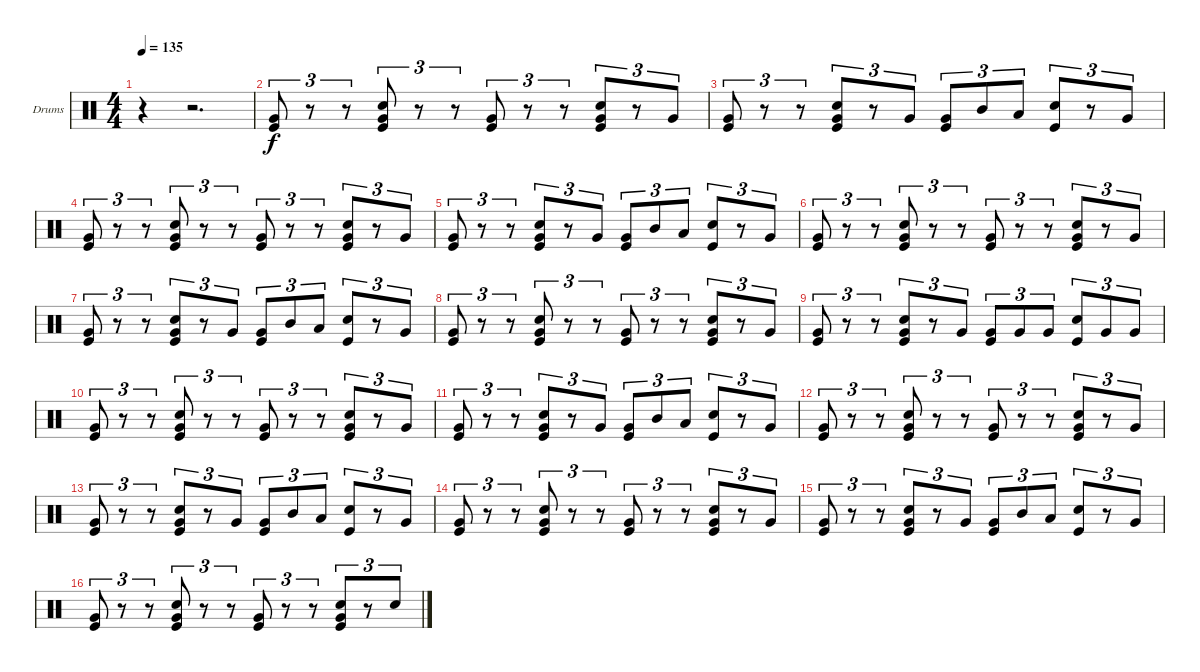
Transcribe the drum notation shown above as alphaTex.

\bracketExtendMode groupsimilarinstruments
\firstSystemTrackNameOrientation horizontal
\otherSystemsTrackNameOrientation horizontal
\track ("Drumkit (Christoph)" "Drums") {instrument percussion}
\staff {score}
\articulation defaults
\ts (4 4)
\tempo 135
\clef neutral
\ks c
r.4{dy f} r.2{d} |
("Very Low Tom (hit)" "Kick (hit)").8{tu (3 2)} r.8{tu (3 2)} r.8{tu (3 2)} ("Snare (hit) 2" "Very Low Tom (hit)" "Kick (hit)").8{tu (3 2)} r.8{tu (3 2)} r.8{tu (3 2)} ("Very Low Tom (hit)" "Kick (hit)").8{tu (3 2)} r.8{tu (3 2)} r.8{tu (3 2)} ("Snare (hit) 2" "Very Low Tom (hit)" "Kick (hit)").8{tu (3 2)} r.8{tu (3 2)} "Very Low Tom (hit)".8{tu (3 2)} |
("Very Low Tom (hit)" "Kick (hit)").8{tu (3 2)} r.8{tu (3 2)} r.8{tu (3 2)} ("Snare (hit) 2" "Very Low Tom (hit)" "Kick (hit)").8{tu (3 2)} r.8{tu (3 2)} "Very Low Tom (hit)".8{tu (3 2)} ("Very Low Tom (hit)" "Kick (hit)").8{tu (3 2)} "Mid Tom (hit)".8{tu (3 2)} "Low Tom (hit)".8{tu (3 2)} ("Snare (hit) 2" "Kick (hit)").8{tu (3 2)} r.8{tu (3 2)} "Very Low Tom (hit)".8{tu (3 2)} |
("Very Low Tom (hit)" "Kick (hit)").8{tu (3 2)} r.8{tu (3 2)} r.8{tu (3 2)} ("Snare (hit) 2" "Very Low Tom (hit)" "Kick (hit)").8{tu (3 2)} r.8{tu (3 2)} r.8{tu (3 2)} ("Very Low Tom (hit)" "Kick (hit)").8{tu (3 2)} r.8{tu (3 2)} r.8{tu (3 2)} ("Snare (hit) 2" "Very Low Tom (hit)" "Kick (hit)").8{tu (3 2)} r.8{tu (3 2)} "Very Low Tom (hit)".8{tu (3 2)} |
("Very Low Tom (hit)" "Kick (hit)").8{tu (3 2)} r.8{tu (3 2)} r.8{tu (3 2)} ("Snare (hit) 2" "Very Low Tom (hit)" "Kick (hit)").8{tu (3 2)} r.8{tu (3 2)} "Very Low Tom (hit)".8{tu (3 2)} ("Very Low Tom (hit)" "Kick (hit)").8{tu (3 2)} "Mid Tom (hit)".8{tu (3 2)} "Low Tom (hit)".8{tu (3 2)} ("Snare (hit) 2" "Kick (hit)").8{tu (3 2)} r.8{tu (3 2)} "Very Low Tom (hit)".8{tu (3 2)} |
("Very Low Tom (hit)" "Kick (hit)").8{tu (3 2)} r.8{tu (3 2)} r.8{tu (3 2)} ("Snare (hit) 2" "Very Low Tom (hit)" "Kick (hit)").8{tu (3 2)} r.8{tu (3 2)} r.8{tu (3 2)} ("Very Low Tom (hit)" "Kick (hit)").8{tu (3 2)} r.8{tu (3 2)} r.8{tu (3 2)} ("Snare (hit) 2" "Very Low Tom (hit)" "Kick (hit)").8{tu (3 2)} r.8{tu (3 2)} "Very Low Tom (hit)".8{tu (3 2)} |
("Very Low Tom (hit)" "Kick (hit)").8{tu (3 2)} r.8{tu (3 2)} r.8{tu (3 2)} ("Snare (hit) 2" "Very Low Tom (hit)" "Kick (hit)").8{tu (3 2)} r.8{tu (3 2)} "Very Low Tom (hit)".8{tu (3 2)} ("Very Low Tom (hit)" "Kick (hit)").8{tu (3 2)} "Mid Tom (hit)".8{tu (3 2)} "Low Tom (hit)".8{tu (3 2)} ("Snare (hit) 2" "Kick (hit)").8{tu (3 2)} r.8{tu (3 2)} "Very Low Tom (hit)".8{tu (3 2)} |
("Very Low Tom (hit)" "Kick (hit)").8{tu (3 2)} r.8{tu (3 2)} r.8{tu (3 2)} ("Snare (hit) 2" "Very Low Tom (hit)" "Kick (hit)").8{tu (3 2)} r.8{tu (3 2)} r.8{tu (3 2)} ("Very Low Tom (hit)" "Kick (hit)").8{tu (3 2)} r.8{tu (3 2)} r.8{tu (3 2)} ("Snare (hit) 2" "Very Low Tom (hit)" "Kick (hit)").8{tu (3 2)} r.8{tu (3 2)} "Very Low Tom (hit)".8{tu (3 2)} |
("Very Low Tom (hit)" "Kick (hit)").8{tu (3 2)} r.8{tu (3 2)} r.8{tu (3 2)} ("Snare (hit) 2" "Very Low Tom (hit)" "Kick (hit)").8{tu (3 2)} r.8{tu (3 2)} "Very Low Tom (hit)".8{tu (3 2)} ("Very Low Tom (hit)" "Kick (hit)").8{tu (3 2)} "Very Low Tom (hit)".8{tu (3 2)} "Very Low Tom (hit)".8{tu (3 2)} ("Snare (hit) 2" "Kick (hit)").8{tu (3 2)} "Very Low Tom (hit)".8{tu (3 2)} "Very Low Tom (hit)".8{tu (3 2)} |
("Very Low Tom (hit)" "Kick (hit)").8{tu (3 2)} r.8{tu (3 2)} r.8{tu (3 2)} ("Snare (hit) 2" "Very Low Tom (hit)" "Kick (hit)").8{tu (3 2)} r.8{tu (3 2)} r.8{tu (3 2)} ("Very Low Tom (hit)" "Kick (hit)").8{tu (3 2)} r.8{tu (3 2)} r.8{tu (3 2)} ("Snare (hit) 2" "Very Low Tom (hit)" "Kick (hit)").8{tu (3 2)} r.8{tu (3 2)} "Very Low Tom (hit)".8{tu (3 2)} |
("Very Low Tom (hit)" "Kick (hit)").8{tu (3 2)} r.8{tu (3 2)} r.8{tu (3 2)} ("Snare (hit) 2" "Very Low Tom (hit)" "Kick (hit)").8{tu (3 2)} r.8{tu (3 2)} "Very Low Tom (hit)".8{tu (3 2)} ("Very Low Tom (hit)" "Kick (hit)").8{tu (3 2)} "Mid Tom (hit)".8{tu (3 2)} "Low Tom (hit)".8{tu (3 2)} ("Snare (hit) 2" "Kick (hit)").8{tu (3 2)} r.8{tu (3 2)} "Very Low Tom (hit)".8{tu (3 2)} |
("Very Low Tom (hit)" "Kick (hit)").8{tu (3 2)} r.8{tu (3 2)} r.8{tu (3 2)} ("Snare (hit) 2" "Very Low Tom (hit)" "Kick (hit)").8{tu (3 2)} r.8{tu (3 2)} r.8{tu (3 2)} ("Very Low Tom (hit)" "Kick (hit)").8{tu (3 2)} r.8{tu (3 2)} r.8{tu (3 2)} ("Snare (hit) 2" "Very Low Tom (hit)" "Kick (hit)").8{tu (3 2)} r.8{tu (3 2)} "Very Low Tom (hit)".8{tu (3 2)} |
("Very Low Tom (hit)" "Kick (hit)").8{tu (3 2)} r.8{tu (3 2)} r.8{tu (3 2)} ("Snare (hit) 2" "Very Low Tom (hit)" "Kick (hit)").8{tu (3 2)} r.8{tu (3 2)} "Very Low Tom (hit)".8{tu (3 2)} ("Very Low Tom (hit)" "Kick (hit)").8{tu (3 2)} "Mid Tom (hit)".8{tu (3 2)} "Low Tom (hit)".8{tu (3 2)} ("Snare (hit) 2" "Kick (hit)").8{tu (3 2)} r.8{tu (3 2)} "Very Low Tom (hit)".8{tu (3 2)} |
("Very Low Tom (hit)" "Kick (hit)").8{tu (3 2)} r.8{tu (3 2)} r.8{tu (3 2)} ("Snare (hit) 2" "Very Low Tom (hit)" "Kick (hit)").8{tu (3 2)} r.8{tu (3 2)} r.8{tu (3 2)} ("Very Low Tom (hit)" "Kick (hit)").8{tu (3 2)} r.8{tu (3 2)} r.8{tu (3 2)} ("Snare (hit) 2" "Very Low Tom (hit)" "Kick (hit)").8{tu (3 2)} r.8{tu (3 2)} "Very Low Tom (hit)".8{tu (3 2)} |
("Very Low Tom (hit)" "Kick (hit)").8{tu (3 2)} r.8{tu (3 2)} r.8{tu (3 2)} ("Snare (hit) 2" "Very Low Tom (hit)" "Kick (hit)").8{tu (3 2)} r.8{tu (3 2)} "Very Low Tom (hit)".8{tu (3 2)} ("Very Low Tom (hit)" "Kick (hit)").8{tu (3 2)} "Mid Tom (hit)".8{tu (3 2)} "Low Tom (hit)".8{tu (3 2)} ("Snare (hit) 2" "Kick (hit)").8{tu (3 2)} r.8{tu (3 2)} "Very Low Tom (hit)".8{tu (3 2)} |
("Very Low Tom (hit)" "Kick (hit)").8{tu (3 2)} r.8{tu (3 2)} r.8{tu (3 2)} ("Snare (hit) 2" "Very Low Tom (hit)" "Kick (hit)").8{tu (3 2)} r.8{tu (3 2)} r.8{tu (3 2)} ("Very Low Tom (hit)" "Kick (hit)").8{tu (3 2)} r.8{tu (3 2)} r.8{tu (3 2)} ("Snare (hit) 2" "Very Low Tom (hit)" "Kick (hit)").8{tu (3 2)} r.8{tu (3 2)} "Snare (hit) 2".8{tu (3 2)}
